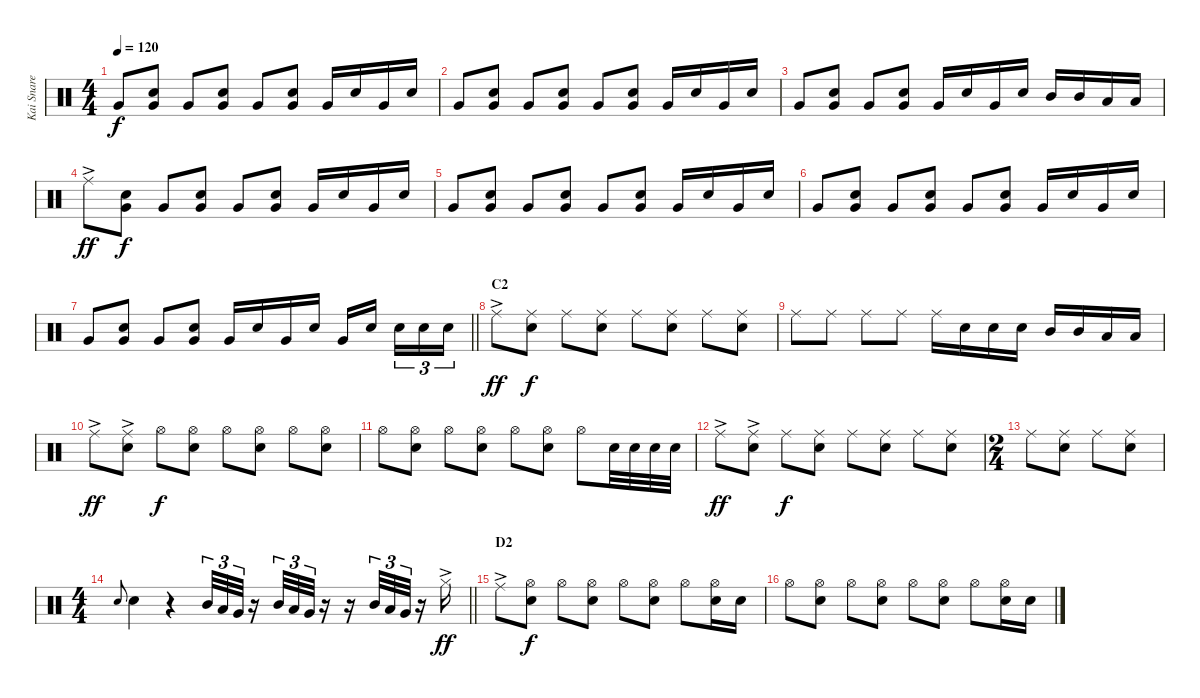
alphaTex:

\track ("Kai Snare" "Kai Snare") {instrument percussion}
\staff {score}
\articulation defaults
\ts (4 4)
\tempo 120
\clef neutral
\ks c "Very Low Tom (hit)".8{dy f}
("Very Low Tom (hit)" "Snare (hit) 2").8 "Very Low Tom (hit)".8 ("Very Low Tom (hit)" "Snare (hit) 2").8 "Very Low Tom (hit)".8 ("Very Low Tom (hit)" "Snare (hit) 2").8 "Very Low Tom (hit)".16 "Snare (hit) 2".16 "Very Low Tom (hit)".16 "Snare (hit) 2".16 |
"Very Low Tom (hit)".8 ("Very Low Tom (hit)" "Snare (hit) 2").8 "Very Low Tom (hit)".8 ("Very Low Tom (hit)" "Snare (hit) 2").8 "Very Low Tom (hit)".8 ("Very Low Tom (hit)" "Snare (hit) 2").8 "Very Low Tom (hit)".16 "Snare (hit) 2".16 "Very Low Tom (hit)".16 "Snare (hit) 2".16 |
"Very Low Tom (hit)".8 ("Very Low Tom (hit)" "Snare (hit) 2").8 "Very Low Tom (hit)".8 ("Very Low Tom (hit)" "Snare (hit) 2").8 "Very Low Tom (hit)".16 "Snare (hit) 2".16 "Very Low Tom (hit)".16 "Snare (hit) 2".16 "Mid Tom (hit)".16 "Mid Tom (hit)".16 "Low Tom (hit)".16 "Low Tom (hit)".16 |
"Ride (middle)"{ac}.8{dy ff} ("Very Low Tom (hit)" "Snare (hit) 2").8{dy f} "Very Low Tom (hit)".8 ("Very Low Tom (hit)" "Snare (hit) 2").8 "Very Low Tom (hit)".8 ("Very Low Tom (hit)" "Snare (hit) 2").8 "Very Low Tom (hit)".16 "Snare (hit) 2".16 "Very Low Tom (hit)".16 "Snare (hit) 2".16 |
"Very Low Tom (hit)".8 ("Very Low Tom (hit)" "Snare (hit) 2").8 "Very Low Tom (hit)".8 ("Very Low Tom (hit)" "Snare (hit) 2").8 "Very Low Tom (hit)".8 ("Very Low Tom (hit)" "Snare (hit) 2").8 "Very Low Tom (hit)".16 "Snare (hit) 2".16 "Very Low Tom (hit)".16 "Snare (hit) 2".16 |
"Very Low Tom (hit)".8 ("Very Low Tom (hit)" "Snare (hit) 2").8 "Very Low Tom (hit)".8 ("Very Low Tom (hit)" "Snare (hit) 2").8 "Very Low Tom (hit)".8 ("Very Low Tom (hit)" "Snare (hit) 2").8 "Very Low Tom (hit)".16 "Snare (hit) 2".16 "Very Low Tom (hit)".16 "Snare (hit) 2".16 |
\barLineRight lightlight "Very Low Tom (hit)".8
("Very Low Tom (hit)" "Snare (hit) 2").8 "Very Low Tom (hit)".8 ("Very Low Tom (hit)" "Snare (hit) 2").8 "Very Low Tom (hit)".16 "Snare (hit) 2".16 "Very Low Tom (hit)".16 "Snare (hit) 2".16 "Very Low Tom (hit)".16 "Snare (hit) 2".16{beam splitsecondary} "Snare (hit) 2".16{tu (3 2)} "Snare (hit) 2".16{tu (3 2)} "Snare (hit) 2".16{tu (3 2)} |
\section ("" "C2")
"Ride (middle)"{ac}.8{dy ff} ("Ride (middle)" "Snare (hit) 2").8{dy f} "Ride (middle)".8 ("Ride (middle)" "Snare (hit) 2").8 "Ride (middle)".8 ("Ride (middle)" "Snare (hit) 2").8 "Ride (middle)".8 ("Ride (middle)" "Snare (hit) 2").8 |
"Ride (middle)".8 "Ride (middle)".8 "Ride (middle)".8 "Ride (middle)".8 "Ride (middle)".16 "Snare (hit) 2".16 "Snare (hit) 2".16 "Snare (hit) 2".16 "Mid Tom (hit)".16 "Mid Tom (hit)".16 "Low Tom (hit)".16 "Low Tom (hit)".16 |
"Ride (middle)"{ac}.8{dy ff} ("Ride (middle)"{ac} "Snare (hit) 2").8 "Hi-Hat (open)".8{dy f} ("Hi-Hat (open)" "Snare (hit) 2").8 "Hi-Hat (open)".8 ("Hi-Hat (open)" "Snare (hit) 2").8 "Hi-Hat (open)".8 ("Hi-Hat (open)" "Snare (hit) 2").8 |
"Hi-Hat (open)".8 ("Hi-Hat (open)" "Snare (hit) 2").8 "Hi-Hat (open)".8 ("Hi-Hat (open)" "Snare (hit) 2").8 "Hi-Hat (open)".8 ("Hi-Hat (open)" "Snare (hit) 2").8 "Hi-Hat (open)".8 "Snare (hit) 2".32 "Snare (hit) 2".32 "Snare (hit) 2".32 "Snare (hit) 2".32 |
"Ride (middle)"{ac}.8{dy ff} ("Ride (middle)"{ac} "Snare (hit) 2").8 "Ride (middle)".8{dy f} ("Ride (middle)" "Snare (hit) 2").8 "Ride (middle)".8 ("Ride (middle)" "Snare (hit) 2").8 "Ride (middle)".8 ("Ride (middle)" "Snare (hit) 2").8 |
\ts (2 4)
"Ride (middle)".8 ("Ride (middle)" "Snare (hit) 2").8 "Ride (middle)".8 ("Ride (middle)" "Snare (hit) 2").8 |
\ts (4 4)
\barLineRight lightlight "Snare (hit) 2".8{gr onbeat} "Snare (hit) 2".4
r.4 "Mid Tom (hit)".32{tu (3 2)} "Low Tom (hit)".32{tu (3 2)} "Very Low Tom (hit)".32{tu (3 2)} r.16 "Mid Tom (hit)".32{tu (3 2)} "Low Tom (hit)".32{tu (3 2)} "Very Low Tom (hit)".32{tu (3 2)} r.16 r.16 "Mid Tom (hit)".32{tu (3 2)} "Low Tom (hit)".32{tu (3 2)} "Very Low Tom (hit)".32{tu (3 2)} r.16 "Hi-Hat (closed)"{ac}.16{dy ff} |
\section ("" "D2")
"Ride (middle)"{ac}.8 ("Hi-Hat (open)" "Snare (hit) 2").8{dy f} "Hi-Hat (open)".8 ("Hi-Hat (open)" "Snare (hit) 2").8 "Hi-Hat (open)".8 ("Hi-Hat (open)" "Snare (hit) 2").8 "Hi-Hat (open)".8 ("Hi-Hat (open)" "Snare (hit) 2").16 "Snare (hit) 2".16 |
"Hi-Hat (open)".8 ("Hi-Hat (open)" "Snare (hit) 2").8 "Hi-Hat (open)".8 ("Hi-Hat (open)" "Snare (hit) 2").8 "Hi-Hat (open)".8 ("Hi-Hat (open)" "Snare (hit) 2").8 "Hi-Hat (open)".8 ("Hi-Hat (open)" "Snare (hit) 2").16 "Snare (hit) 2".16
